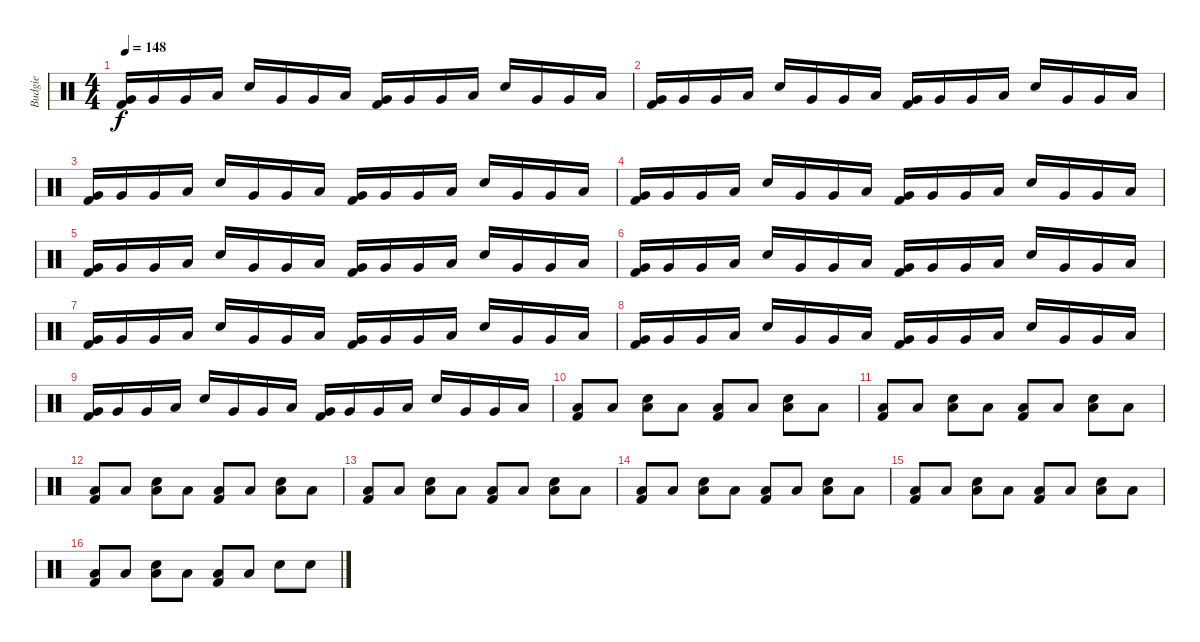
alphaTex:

\track ("Budgie" "Budgie") {instrument percussion}
\staff {score}
\articulation defaults
\ts (4 4)
\tempo 148
\clef neutral
\ks c
("Very Low Tom (hit)" "Kick (hit) 2").16{dy f} "Very Low Tom (hit)".16 "Very Low Tom (hit)".16 "Low Floor Tom (hit)".16 "Snare (hit) 2".16 "Very Low Tom (hit)".16 "Very Low Tom (hit)".16 "Low Floor Tom (hit)".16 ("Very Low Tom (hit)" "Kick (hit) 2").16 "Very Low Tom (hit)".16 "Very Low Tom (hit)".16 "Low Floor Tom (hit)".16 "Snare (hit) 2".16 "Very Low Tom (hit)".16 "Very Low Tom (hit)".16 "Low Floor Tom (hit)".16 |
("Very Low Tom (hit)" "Kick (hit) 2").16 "Very Low Tom (hit)".16 "Very Low Tom (hit)".16 "Low Floor Tom (hit)".16 "Snare (hit) 2".16 "Very Low Tom (hit)".16 "Very Low Tom (hit)".16 "Low Floor Tom (hit)".16 ("Very Low Tom (hit)" "Kick (hit) 2").16 "Very Low Tom (hit)".16 "Very Low Tom (hit)".16 "Low Floor Tom (hit)".16 "Snare (hit) 2".16 "Very Low Tom (hit)".16 "Very Low Tom (hit)".16 "Low Floor Tom (hit)".16 |
("Very Low Tom (hit)" "Kick (hit) 2").16 "Very Low Tom (hit)".16 "Very Low Tom (hit)".16 "Low Floor Tom (hit)".16 "Snare (hit) 2".16 "Very Low Tom (hit)".16 "Very Low Tom (hit)".16 "Low Floor Tom (hit)".16 ("Very Low Tom (hit)" "Kick (hit) 2").16 "Very Low Tom (hit)".16 "Very Low Tom (hit)".16 "Low Floor Tom (hit)".16 "Snare (hit) 2".16 "Very Low Tom (hit)".16 "Very Low Tom (hit)".16 "Low Floor Tom (hit)".16 |
("Very Low Tom (hit)" "Kick (hit) 2").16 "Very Low Tom (hit)".16 "Very Low Tom (hit)".16 "Low Floor Tom (hit)".16 "Snare (hit) 2".16 "Very Low Tom (hit)".16 "Very Low Tom (hit)".16 "Low Floor Tom (hit)".16 ("Very Low Tom (hit)" "Kick (hit) 2").16 "Very Low Tom (hit)".16 "Very Low Tom (hit)".16 "Low Floor Tom (hit)".16 "Snare (hit) 2".16 "Very Low Tom (hit)".16 "Very Low Tom (hit)".16 "Low Floor Tom (hit)".16 |
("Very Low Tom (hit)" "Kick (hit) 2").16 "Very Low Tom (hit)".16 "Very Low Tom (hit)".16 "Low Floor Tom (hit)".16 "Snare (hit) 2".16 "Very Low Tom (hit)".16 "Very Low Tom (hit)".16 "Low Floor Tom (hit)".16 ("Very Low Tom (hit)" "Kick (hit) 2").16 "Very Low Tom (hit)".16 "Very Low Tom (hit)".16 "Low Floor Tom (hit)".16 "Snare (hit) 2".16 "Very Low Tom (hit)".16 "Very Low Tom (hit)".16 "Low Floor Tom (hit)".16 |
("Very Low Tom (hit)" "Kick (hit) 2").16 "Very Low Tom (hit)".16 "Very Low Tom (hit)".16 "Low Floor Tom (hit)".16 "Snare (hit) 2".16 "Very Low Tom (hit)".16 "Very Low Tom (hit)".16 "Low Floor Tom (hit)".16 ("Very Low Tom (hit)" "Kick (hit) 2").16 "Very Low Tom (hit)".16 "Very Low Tom (hit)".16 "Low Floor Tom (hit)".16 "Snare (hit) 2".16 "Very Low Tom (hit)".16 "Very Low Tom (hit)".16 "Low Floor Tom (hit)".16 |
("Very Low Tom (hit)" "Kick (hit) 2").16 "Very Low Tom (hit)".16 "Very Low Tom (hit)".16 "Low Floor Tom (hit)".16 "Snare (hit) 2".16 "Very Low Tom (hit)".16 "Very Low Tom (hit)".16 "Low Floor Tom (hit)".16 ("Very Low Tom (hit)" "Kick (hit) 2").16 "Very Low Tom (hit)".16 "Very Low Tom (hit)".16 "Low Floor Tom (hit)".16 "Snare (hit) 2".16 "Very Low Tom (hit)".16 "Very Low Tom (hit)".16 "Low Floor Tom (hit)".16 |
("Very Low Tom (hit)" "Kick (hit) 2").16 "Very Low Tom (hit)".16 "Very Low Tom (hit)".16 "Low Floor Tom (hit)".16 "Snare (hit) 2".16 "Very Low Tom (hit)".16 "Very Low Tom (hit)".16 "Low Floor Tom (hit)".16 ("Very Low Tom (hit)" "Kick (hit) 2").16 "Very Low Tom (hit)".16 "Very Low Tom (hit)".16 "Low Floor Tom (hit)".16 "Snare (hit) 2".16 "Very Low Tom (hit)".16 "Very Low Tom (hit)".16 "Low Floor Tom (hit)".16 |
("Very Low Tom (hit)" "Kick (hit) 2").16 "Very Low Tom (hit)".16 "Very Low Tom (hit)".16 "Low Floor Tom (hit)".16 "Snare (hit) 2".16 "Very Low Tom (hit)".16 "Very Low Tom (hit)".16 "Low Floor Tom (hit)".16 ("Very Low Tom (hit)" "Kick (hit) 2").16 "Very Low Tom (hit)".16 "Very Low Tom (hit)".16 "Low Floor Tom (hit)".16 "Snare (hit) 2".16 "Very Low Tom (hit)".16 "Very Low Tom (hit)".16 "Low Floor Tom (hit)".16 |
("Low Floor Tom (hit)" "Kick (hit) 2").8 "Low Floor Tom (hit)".8 ("Snare (hit) 2" "Low Floor Tom (hit)").8 "Low Floor Tom (hit)".8 ("Low Floor Tom (hit)" "Kick (hit) 2").8 "Low Floor Tom (hit)".8 ("Snare (hit) 2" "Low Floor Tom (hit)").8 "Low Floor Tom (hit)".8 |
("Low Floor Tom (hit)" "Kick (hit) 2").8 "Low Floor Tom (hit)".8 ("Snare (hit) 2" "Low Floor Tom (hit)").8 "Low Floor Tom (hit)".8 ("Low Floor Tom (hit)" "Kick (hit) 2").8 "Low Floor Tom (hit)".8 ("Snare (hit) 2" "Low Floor Tom (hit)").8 "Low Floor Tom (hit)".8 |
("Low Floor Tom (hit)" "Kick (hit) 2").8 "Low Floor Tom (hit)".8 ("Snare (hit) 2" "Low Floor Tom (hit)").8 "Low Floor Tom (hit)".8 ("Low Floor Tom (hit)" "Kick (hit) 2").8 "Low Floor Tom (hit)".8 ("Snare (hit) 2" "Low Floor Tom (hit)").8 "Low Floor Tom (hit)".8 |
("Low Floor Tom (hit)" "Kick (hit) 2").8 "Low Floor Tom (hit)".8 ("Snare (hit) 2" "Low Floor Tom (hit)").8 "Low Floor Tom (hit)".8 ("Low Floor Tom (hit)" "Kick (hit) 2").8 "Low Floor Tom (hit)".8 ("Snare (hit) 2" "Low Floor Tom (hit)").8 "Low Floor Tom (hit)".8 |
("Low Floor Tom (hit)" "Kick (hit) 2").8 "Low Floor Tom (hit)".8 ("Snare (hit) 2" "Low Floor Tom (hit)").8 "Low Floor Tom (hit)".8 ("Low Floor Tom (hit)" "Kick (hit) 2").8 "Low Floor Tom (hit)".8 ("Snare (hit) 2" "Low Floor Tom (hit)").8 "Low Floor Tom (hit)".8 |
("Low Floor Tom (hit)" "Kick (hit) 2").8 "Low Floor Tom (hit)".8 ("Snare (hit) 2" "Low Floor Tom (hit)").8 "Low Floor Tom (hit)".8 ("Low Floor Tom (hit)" "Kick (hit) 2").8 "Low Floor Tom (hit)".8 ("Snare (hit) 2" "Low Floor Tom (hit)").8 "Low Floor Tom (hit)".8 |
("Low Floor Tom (hit)" "Kick (hit) 2").8 "Low Floor Tom (hit)".8 ("Snare (hit) 2" "Low Floor Tom (hit)").8 "Low Floor Tom (hit)".8 ("Low Floor Tom (hit)" "Kick (hit) 2").8 "Low Floor Tom (hit)".8 "Snare (hit) 2".8 "Snare (hit) 2".8
